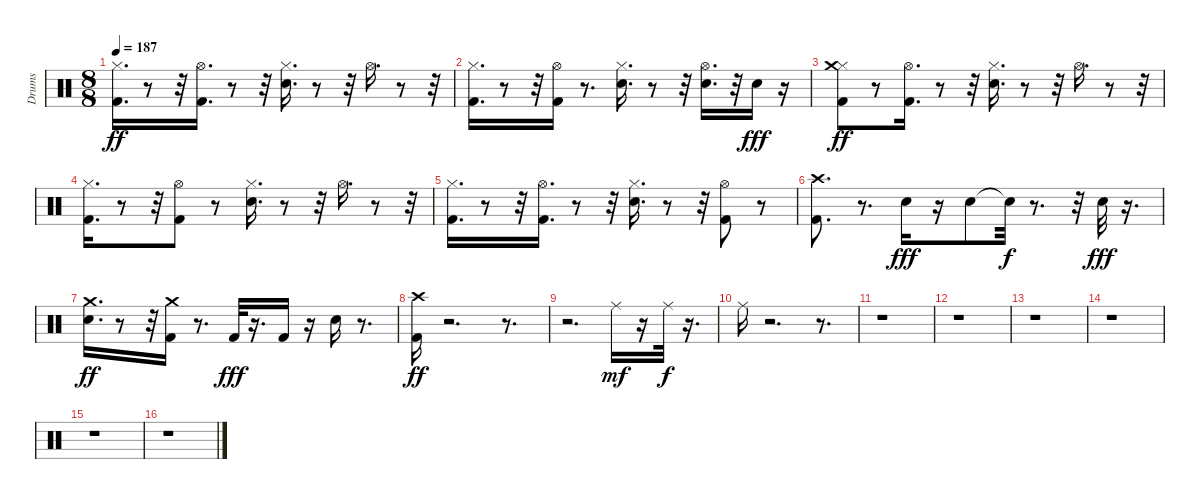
\track ("Drums" "Drums") {instrument percussion}
\staff {score}
\articulation defaults
\ts (8 8)
\tempo 187
\clef neutral
\ks c
("Kick (hit) 2" "Hi-Hat (closed)").16{d dy ff} r.8 r.32 ("Kick (hit) 2" "Hi-Hat (open)").16{d} r.8 r.32 ("Snare (hit) 2" "Hi-Hat (closed)").16{d} r.8 r.32 "Hi-Hat (open)".16{d} r.8 r.32 |
("Kick (hit) 2" "Hi-Hat (closed)").16{d} r.8 r.32 ("Kick (hit) 2" "Hi-Hat (open)").16 r.8{d} ("Snare (hit) 2" "Hi-Hat (closed)").16{d} r.8 r.32 ("Snare (hit) 2" "Hi-Hat (open)").16{d} r.32 "Snare (hit) 2".16{dy fff} r.16 |
("Kick (hit) 2" "Hi-Hat (closed)" "Crash medium (hit)").8{dy ff} r.8 ("Kick (hit) 2" "Hi-Hat (open)").16{d} r.8 r.32 ("Snare (hit) 2" "Hi-Hat (closed)").16{d} r.8 r.32 "Hi-Hat (open)".16{d} r.8 r.32 |
("Kick (hit) 2" "Hi-Hat (closed)").16{d} r.8 r.32 ("Kick (hit) 2" "Hi-Hat (open)").8 r.8 ("Snare (hit) 2" "Hi-Hat (closed)").16{d} r.8 r.32 "Hi-Hat (open)".16{d} r.8 r.32 |
("Kick (hit) 2" "Hi-Hat (closed)").16{d} r.8 r.32 ("Kick (hit) 2" "Hi-Hat (open)").16{d} r.8 r.32 ("Snare (hit) 2" "Hi-Hat (closed)").16{d} r.8 r.32 ("Kick (hit) 2" "Hi-Hat (open)").8 r.8 |
("Kick (hit) 2" "Crash high (hit)").8{d} r.8{d} "Snare (hit) 2".16{dy fff} r.16 "Snare (hit) 2".8 "Snare (hit)"{t}.32{dy f} r.8{d} r.32 "Snare (hit) 2".32{dy fff} r.16{d} |
("Snare (hit) 2" "Crash medium (hit)").16{d dy ff} r.8 r.32 ("Kick (hit) 2" "Crash medium (hit)").16 r.8{d} "Kick (hit) 2".32{dy fff} r.16{d} "Kick (hit) 2".16 r.16 "Snare (hit) 2".16 r.8{d} |
("Kick (hit) 2" "Crash high (hit)").16{dy ff} r.2{d} r.8{d} |
r.2{d} "Ride (middle)".16{dy mf} r.16 "Ride (middle)".32{dy f} r.16{d} |
"Ride (middle)".16 r.2{d} r.8{d} |
r.1 |
r.1 |
r.1 |
r.1 |
r.1 |
r.1
